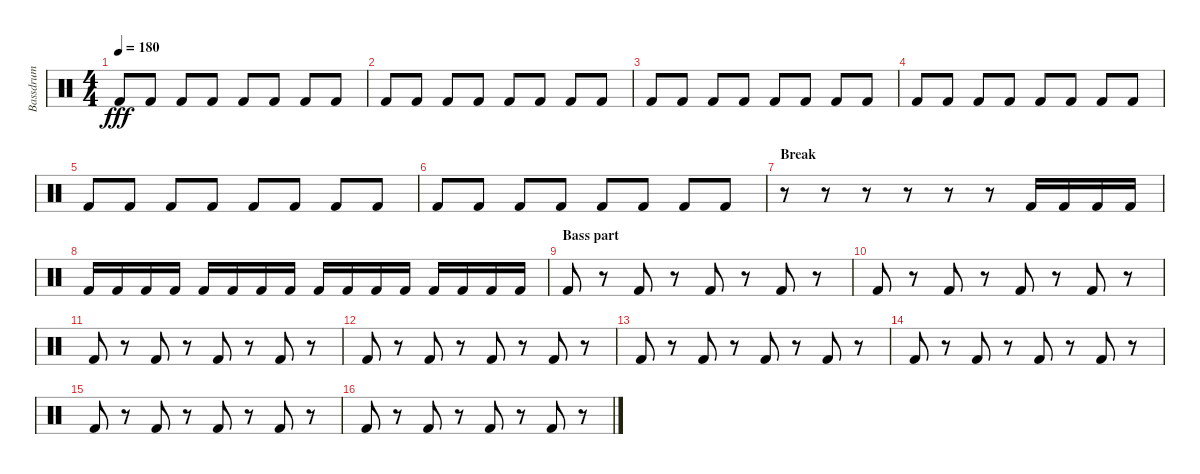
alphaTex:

\track ("Bassdrum" "Bassdrum") {instrument percussion}
\staff {score}
\articulation defaults
\ts (4 4)
\tempo 180
\clef neutral
\ks c "Kick (hit) 2".8{dy fff} "Kick (hit) 2".8 "Kick (hit) 2".8 "Kick (hit) 2".8 "Kick (hit) 2".8 "Kick (hit) 2".8 "Kick (hit) 2".8 "Kick (hit) 2".8
|
"Kick (hit) 2".8 "Kick (hit) 2".8 "Kick (hit) 2".8 "Kick (hit) 2".8 "Kick (hit) 2".8 "Kick (hit) 2".8 "Kick (hit) 2".8 "Kick (hit) 2".8 |
"Kick (hit) 2".8 "Kick (hit) 2".8 "Kick (hit) 2".8 "Kick (hit) 2".8 "Kick (hit) 2".8 "Kick (hit) 2".8 "Kick (hit) 2".8 "Kick (hit) 2".8 |
"Kick (hit) 2".8 "Kick (hit) 2".8 "Kick (hit) 2".8 "Kick (hit) 2".8 "Kick (hit) 2".8 "Kick (hit) 2".8 "Kick (hit) 2".8 "Kick (hit) 2".8 |
"Kick (hit) 2".8 "Kick (hit) 2".8 "Kick (hit) 2".8 "Kick (hit) 2".8 "Kick (hit) 2".8 "Kick (hit) 2".8 "Kick (hit) 2".8 "Kick (hit) 2".8 |
"Kick (hit) 2".8 "Kick (hit) 2".8 "Kick (hit) 2".8 "Kick (hit) 2".8 "Kick (hit) 2".8 "Kick (hit) 2".8 "Kick (hit) 2".8 "Kick (hit) 2".8 |
\section ("" "Break")
r.8 r.8 r.8 r.8 r.8 r.8 "Kick (hit) 2".16 "Kick (hit) 2".16 "Kick (hit) 2".16 "Kick (hit) 2".16 |
"Kick (hit) 2".16 "Kick (hit) 2".16 "Kick (hit) 2".16 "Kick (hit) 2".16 "Kick (hit) 2".16 "Kick (hit) 2".16 "Kick (hit) 2".16 "Kick (hit) 2".16 "Kick (hit) 2".16 "Kick (hit) 2".16 "Kick (hit) 2".16 "Kick (hit) 2".16 "Kick (hit) 2".16 "Kick (hit) 2".16 "Kick (hit) 2".16 "Kick (hit) 2".16 |
\section ("" "Bass part")
"Kick (hit) 2".8 r.8 "Kick (hit) 2".8 r.8 "Kick (hit) 2".8 r.8 "Kick (hit) 2".8 r.8 |
"Kick (hit) 2".8 r.8 "Kick (hit) 2".8 r.8 "Kick (hit) 2".8 r.8 "Kick (hit) 2".8 r.8 |
"Kick (hit) 2".8 r.8 "Kick (hit) 2".8 r.8 "Kick (hit) 2".8 r.8 "Kick (hit) 2".8 r.8 |
"Kick (hit) 2".8 r.8 "Kick (hit) 2".8 r.8 "Kick (hit) 2".8 r.8 "Kick (hit) 2".8 r.8 |
"Kick (hit) 2".8 r.8 "Kick (hit) 2".8 r.8 "Kick (hit) 2".8 r.8 "Kick (hit) 2".8 r.8 |
"Kick (hit) 2".8 r.8 "Kick (hit) 2".8 r.8 "Kick (hit) 2".8 r.8 "Kick (hit) 2".8 r.8 |
"Kick (hit) 2".8 r.8 "Kick (hit) 2".8 r.8 "Kick (hit) 2".8 r.8 "Kick (hit) 2".8 r.8 |
"Kick (hit) 2".8 r.8 "Kick (hit) 2".8 r.8 "Kick (hit) 2".8 r.8 "Kick (hit) 2".8 r.8
